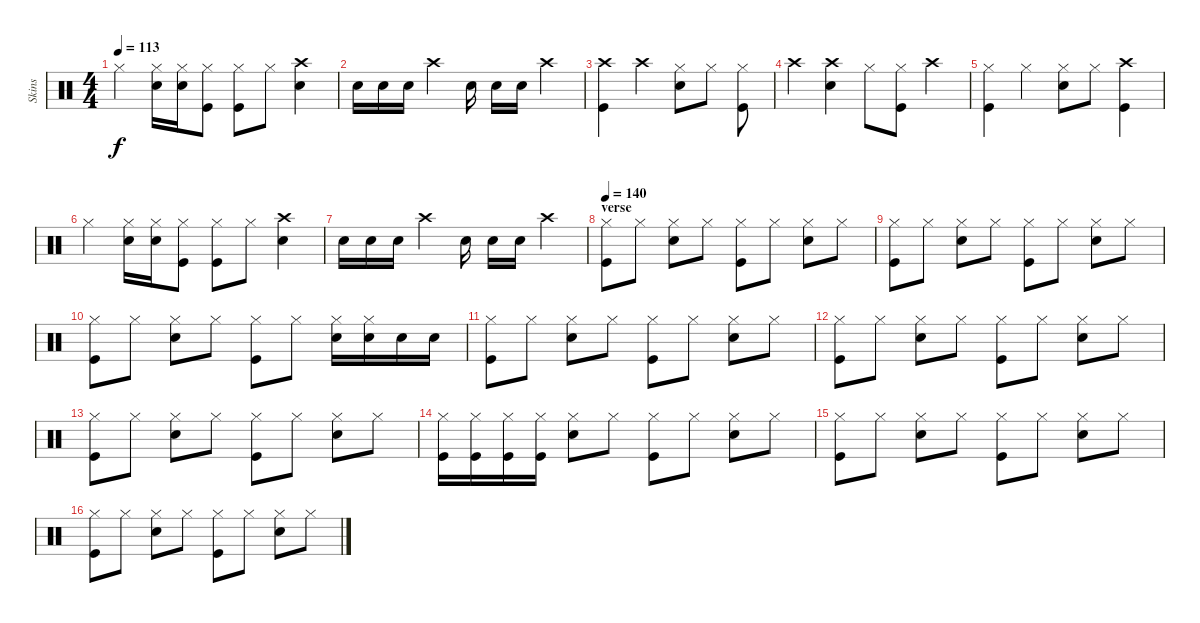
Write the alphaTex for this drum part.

\track ("Skins" "Skins") {instrument percussion}
\staff {score}
\articulation defaults
\ts (4 4)
\tempo 113
\clef neutral
\ks c "Hi-Hat (closed)".4{dy f}
("Hi-Hat (closed)" "Snare (hit) 2").16 ("Hi-Hat (closed)" "Snare (hit) 2").16 ("Hi-Hat (closed)" "Kick (hit)").8 ("Hi-Hat (closed)" "Kick (hit)").8 "Hi-Hat (closed)".8 ("Crash high (hit)" "Snare (hit) 2").4 |
"Snare (hit) 2".16 "Snare (hit) 2".16 "Snare (hit) 2".16 "Crash high (hit)".4 "Snare (hit) 2".16 "Snare (hit) 2".16 "Snare (hit) 2".16 "Crash high (hit)".4 |
("Crash high (hit)" "Kick (hit)").4 "Crash high (hit)".4 ("Hi-Hat (closed)" "Snare (hit) 2").8 "Hi-Hat (closed)".8 ("Hi-Hat (closed)" "Kick (hit)").8 |
"Crash high (hit)".4 ("Crash high (hit)" "Snare (hit) 2").4 "Hi-Hat (closed)".8 ("Hi-Hat (closed)" "Kick (hit)").8 "Crash high (hit)".4 |
("Hi-Hat (closed)" "Kick (hit)").4 "Hi-Hat (closed)".4 ("Hi-Hat (closed)" "Snare (hit) 2").8 "Hi-Hat (closed)".8 ("Crash high (hit)" "Kick (hit)").4 |
"Hi-Hat (closed)".4 ("Hi-Hat (closed)" "Snare (hit) 2").16 ("Hi-Hat (closed)" "Snare (hit) 2").16 ("Hi-Hat (closed)" "Kick (hit)").8 ("Hi-Hat (closed)" "Kick (hit)").8 "Hi-Hat (closed)".8 ("Crash high (hit)" "Snare (hit) 2").4 |
"Snare (hit) 2".16 "Snare (hit) 2".16 "Snare (hit) 2".16 "Crash high (hit)".4 "Snare (hit) 2".16 "Snare (hit) 2".16 "Snare (hit) 2".16 "Crash high (hit)".4 |
\section ("" "verse")
\tempo 150
\tempo 140
("Hi-Hat (closed)" "Kick (hit)").8 "Hi-Hat (closed)".8 ("Hi-Hat (closed)" "Snare (hit) 2").8 "Hi-Hat (closed)".8 ("Hi-Hat (closed)" "Kick (hit)").8 "Hi-Hat (closed)".8 ("Hi-Hat (closed)" "Snare (hit) 2").8 "Hi-Hat (closed)".8 |
("Hi-Hat (closed)" "Kick (hit)").8 "Hi-Hat (closed)".8 ("Hi-Hat (closed)" "Snare (hit) 2").8 "Hi-Hat (closed)".8 ("Hi-Hat (closed)" "Kick (hit)").8 "Hi-Hat (closed)".8 ("Hi-Hat (closed)" "Snare (hit) 2").8 "Hi-Hat (closed)".8 |
("Hi-Hat (closed)" "Kick (hit)").8 "Hi-Hat (closed)".8 ("Hi-Hat (closed)" "Snare (hit) 2").8 "Hi-Hat (closed)".8 ("Hi-Hat (closed)" "Kick (hit)").8 "Hi-Hat (closed)".8 ("Hi-Hat (closed)" "Snare (hit) 2").16 ("Hi-Hat (closed)" "Snare (hit) 2").16 "Snare (hit) 2".16 "Snare (hit) 2".16 |
("Hi-Hat (closed)" "Kick (hit)").8 "Hi-Hat (closed)".8 ("Hi-Hat (closed)" "Snare (hit) 2").8 "Hi-Hat (closed)".8 ("Hi-Hat (closed)" "Kick (hit)").8 "Hi-Hat (closed)".8 ("Hi-Hat (closed)" "Snare (hit) 2").8 "Hi-Hat (closed)".8 |
("Hi-Hat (closed)" "Kick (hit)").8 "Hi-Hat (closed)".8 ("Hi-Hat (closed)" "Snare (hit) 2").8 "Hi-Hat (closed)".8 ("Hi-Hat (closed)" "Kick (hit)").8 "Hi-Hat (closed)".8 ("Hi-Hat (closed)" "Snare (hit) 2").8 "Hi-Hat (closed)".8 |
("Hi-Hat (closed)" "Kick (hit)").8 "Hi-Hat (closed)".8 ("Hi-Hat (closed)" "Snare (hit) 2").8 "Hi-Hat (closed)".8 ("Hi-Hat (closed)" "Kick (hit)").8 "Hi-Hat (closed)".8 ("Hi-Hat (closed)" "Snare (hit) 2").8 "Hi-Hat (closed)".8 |
("Hi-Hat (closed)" "Kick (hit)").16 ("Hi-Hat (closed)" "Kick (hit)").16 ("Hi-Hat (closed)" "Kick (hit)").16 ("Hi-Hat (closed)" "Kick (hit)").16 ("Hi-Hat (closed)" "Snare (hit) 2").8 "Hi-Hat (closed)".8 ("Hi-Hat (closed)" "Kick (hit)").8 "Hi-Hat (closed)".8 ("Hi-Hat (closed)" "Snare (hit) 2").8 "Hi-Hat (closed)".8 |
("Hi-Hat (closed)" "Kick (hit)").8 "Hi-Hat (closed)".8 ("Hi-Hat (closed)" "Snare (hit) 2").8 "Hi-Hat (closed)".8 ("Hi-Hat (closed)" "Kick (hit)").8 "Hi-Hat (closed)".8 ("Hi-Hat (closed)" "Snare (hit) 2").8 "Hi-Hat (closed)".8 |
("Hi-Hat (closed)" "Kick (hit)").8 "Hi-Hat (closed)".8 ("Hi-Hat (closed)" "Snare (hit) 2").8 "Hi-Hat (closed)".8 ("Hi-Hat (closed)" "Kick (hit)").8 "Hi-Hat (closed)".8 ("Hi-Hat (closed)" "Snare (hit) 2").8 "Hi-Hat (closed)".8
